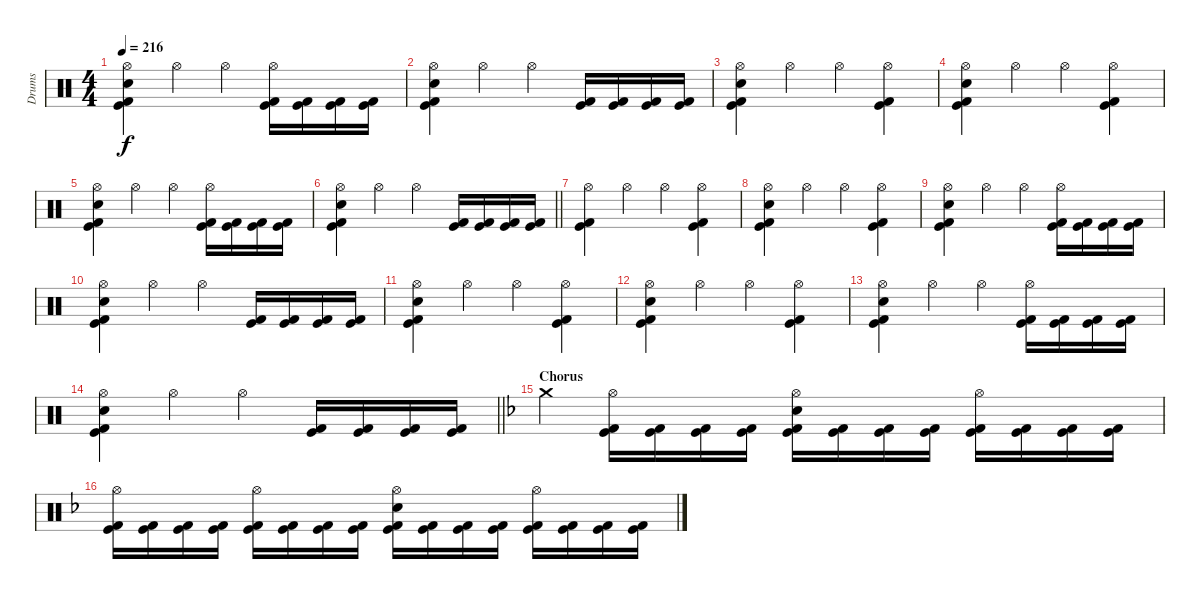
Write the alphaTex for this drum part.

\track ("Drums" "Drums") {instrument percussion}
\staff {score}
\articulation defaults
\ts (4 4)
\tempo 216
\clef neutral
\ks c
("Hi-Hat (open)" "Electric Snare (hit)" "Kick (hit)" "Kick (hit) 2").4{dy f} "Hi-Hat (open)".4 "Hi-Hat (open)".4 ("Hi-Hat (open)" "Kick (hit)" "Kick (hit) 2").16 ("Kick (hit)" "Kick (hit) 2").16 ("Kick (hit)" "Kick (hit) 2").16 ("Kick (hit)" "Kick (hit) 2").16 |
("Hi-Hat (open)" "Electric Snare (hit)" "Kick (hit)" "Kick (hit) 2").4 "Hi-Hat (open)".4 "Hi-Hat (open)".4 ("Kick (hit)" "Kick (hit) 2").16 ("Kick (hit)" "Kick (hit) 2").16 ("Kick (hit)" "Kick (hit) 2").16 ("Kick (hit)" "Kick (hit) 2").16 |
("Hi-Hat (open)" "Electric Snare (hit)" "Kick (hit)" "Kick (hit) 2").4 "Hi-Hat (open)".4 "Hi-Hat (open)".4 ("Hi-Hat (open)" "Kick (hit)" "Kick (hit) 2").4 |
("Hi-Hat (open)" "Electric Snare (hit)" "Kick (hit)" "Kick (hit) 2").4 "Hi-Hat (open)".4 "Hi-Hat (open)".4 ("Hi-Hat (open)" "Kick (hit)" "Kick (hit) 2").4 |
("Hi-Hat (open)" "Electric Snare (hit)" "Kick (hit)" "Kick (hit) 2").4 "Hi-Hat (open)".4 "Hi-Hat (open)".4 ("Hi-Hat (open)" "Kick (hit)" "Kick (hit) 2").16 ("Kick (hit)" "Kick (hit) 2").16 ("Kick (hit)" "Kick (hit) 2").16 ("Kick (hit)" "Kick (hit) 2").16 |
\barLineRight lightlight
("Hi-Hat (open)" "Electric Snare (hit)" "Kick (hit)" "Kick (hit) 2").4 "Hi-Hat (open)".4 "Hi-Hat (open)".4 ("Kick (hit)" "Kick (hit) 2").16 ("Kick (hit)" "Kick (hit) 2").16 ("Kick (hit)" "Kick (hit) 2").16 ("Kick (hit)" "Kick (hit) 2").16 |
("Hi-Hat (open)" "Kick (hit)" "Kick (hit) 2").4 "Hi-Hat (open)".4 "Hi-Hat (open)".4 ("Hi-Hat (open)" "Kick (hit)" "Kick (hit) 2").4 |
("Hi-Hat (open)" "Electric Snare (hit)" "Kick (hit)" "Kick (hit) 2").4 "Hi-Hat (open)".4 "Hi-Hat (open)".4 ("Hi-Hat (open)" "Kick (hit)" "Kick (hit) 2").4 |
("Hi-Hat (open)" "Electric Snare (hit)" "Kick (hit)" "Kick (hit) 2").4 "Hi-Hat (open)".4 "Hi-Hat (open)".4 ("Hi-Hat (open)" "Kick (hit)" "Kick (hit) 2").16 ("Kick (hit)" "Kick (hit) 2").16 ("Kick (hit)" "Kick (hit) 2").16 ("Kick (hit)" "Kick (hit) 2").16 |
("Hi-Hat (open)" "Electric Snare (hit)" "Kick (hit)" "Kick (hit) 2").4 "Hi-Hat (open)".4 "Hi-Hat (open)".4 ("Kick (hit)" "Kick (hit) 2").16 ("Kick (hit)" "Kick (hit) 2").16 ("Kick (hit)" "Kick (hit) 2").16 ("Kick (hit)" "Kick (hit) 2").16 |
("Hi-Hat (open)" "Electric Snare (hit)" "Kick (hit)" "Kick (hit) 2").4 "Hi-Hat (open)".4 "Hi-Hat (open)".4 ("Hi-Hat (open)" "Kick (hit)" "Kick (hit) 2").4 |
("Hi-Hat (open)" "Electric Snare (hit)" "Kick (hit)" "Kick (hit) 2").4 "Hi-Hat (open)".4 "Hi-Hat (open)".4 ("Hi-Hat (open)" "Kick (hit)" "Kick (hit) 2").4 |
("Hi-Hat (open)" "Electric Snare (hit)" "Kick (hit)" "Kick (hit) 2").4 "Hi-Hat (open)".4 "Hi-Hat (open)".4 ("Hi-Hat (open)" "Kick (hit)" "Kick (hit) 2").16 ("Kick (hit)" "Kick (hit) 2").16 ("Kick (hit)" "Kick (hit) 2").16 ("Kick (hit)" "Kick (hit) 2").16 |
\barLineRight lightlight
("Hi-Hat (open)" "Electric Snare (hit)" "Kick (hit)" "Kick (hit) 2").4 "Hi-Hat (open)".4 "Hi-Hat (open)".4 ("Kick (hit)" "Kick (hit) 2").16 ("Kick (hit)" "Kick (hit) 2").16 ("Kick (hit)" "Kick (hit) 2").16 ("Kick (hit)" "Kick (hit) 2").16 |
\section ("" "Chorus")
\ks f "Crash medium (hit)".4
("Hi-Hat (open)" "Kick (hit)" "Kick (hit) 2").16 ("Kick (hit)" "Kick (hit) 2").16 ("Kick (hit)" "Kick (hit) 2").16 ("Kick (hit)" "Kick (hit) 2").16 ("Hi-Hat (open)" "Electric Snare (hit)" "Kick (hit)" "Kick (hit) 2").16 ("Kick (hit)" "Kick (hit) 2").16 ("Kick (hit)" "Kick (hit) 2").16 ("Kick (hit)" "Kick (hit) 2").16 ("Hi-Hat (open)" "Kick (hit)" "Kick (hit) 2").16 ("Kick (hit)" "Kick (hit) 2").16 ("Kick (hit)" "Kick (hit) 2").16 ("Kick (hit)" "Kick (hit) 2").16 |
("Hi-Hat (open)" "Kick (hit)" "Kick (hit) 2").16 ("Kick (hit)" "Kick (hit) 2").16 ("Kick (hit)" "Kick (hit) 2").16 ("Kick (hit)" "Kick (hit) 2").16 ("Hi-Hat (open)" "Kick (hit)" "Kick (hit) 2").16 ("Kick (hit)" "Kick (hit) 2").16 ("Kick (hit)" "Kick (hit) 2").16 ("Kick (hit)" "Kick (hit) 2").16 ("Hi-Hat (open)" "Electric Snare (hit)" "Kick (hit)" "Kick (hit) 2").16 ("Kick (hit)" "Kick (hit) 2").16 ("Kick (hit)" "Kick (hit) 2").16 ("Kick (hit)" "Kick (hit) 2").16 ("Hi-Hat (open)" "Kick (hit)" "Kick (hit) 2").16 ("Kick (hit)" "Kick (hit) 2").16 ("Kick (hit)" "Kick (hit) 2").16 ("Kick (hit)" "Kick (hit) 2").16
